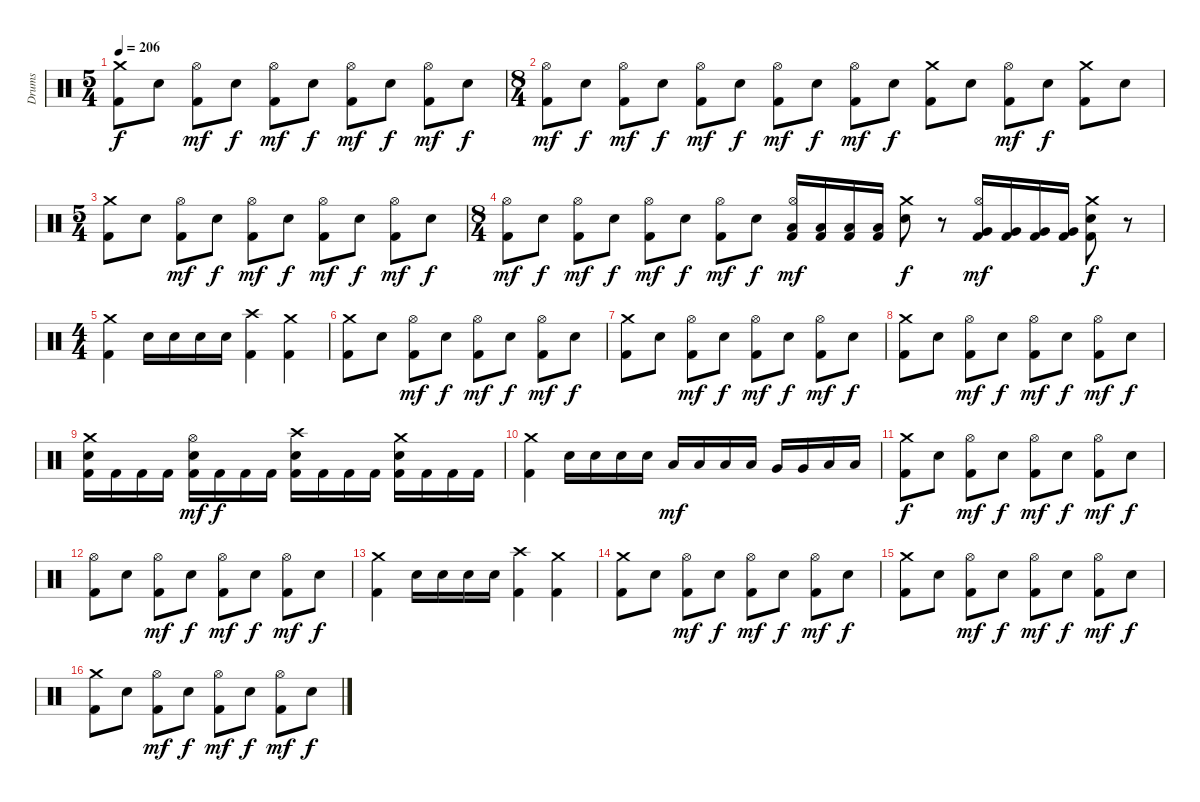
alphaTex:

\track ("Drums" "Drums") {instrument percussion}
\staff {score}
\articulation defaults
\ts (5 4)
\tempo 206
\clef neutral
\ks c
("Crash medium (hit)" "Kick (hit) 2").8{dy f} "Snare (hit) 2".8 ("Hi-Hat (open)" "Kick (hit) 2").8{dy mf} "Snare (hit) 2".8{dy f} ("Hi-Hat (open)" "Kick (hit) 2").8{dy mf} "Snare (hit) 2".8{dy f} ("Hi-Hat (open)" "Kick (hit) 2").8{dy mf} "Snare (hit) 2".8{dy f} ("Hi-Hat (open)" "Kick (hit) 2").8{dy mf} "Snare (hit) 2".8{dy f} |
\ts (8 4)
("Hi-Hat (open)" "Kick (hit) 2").8{dy mf} "Snare (hit) 2".8{dy f} ("Hi-Hat (open)" "Kick (hit) 2").8{dy mf} "Snare (hit) 2".8{dy f} ("Hi-Hat (open)" "Kick (hit) 2").8{dy mf} "Snare (hit) 2".8{dy f} ("Hi-Hat (open)" "Kick (hit) 2").8{dy mf} "Snare (hit) 2".8{dy f} ("Hi-Hat (open)" "Kick (hit) 2").8{dy mf} "Snare (hit) 2".8{dy f} ("Crash medium (hit)" "Kick (hit) 2").8 "Snare (hit) 2".8 ("Hi-Hat (open)" "Kick (hit) 2").8{dy mf} "Snare (hit) 2".8{dy f} ("Crash medium (hit)" "Kick (hit) 2").8 "Snare (hit) 2".8 |
\ts (5 4)
("Crash medium (hit)" "Kick (hit) 2").8 "Snare (hit) 2".8 ("Hi-Hat (open)" "Kick (hit) 2").8{dy mf} "Snare (hit) 2".8{dy f} ("Hi-Hat (open)" "Kick (hit) 2").8{dy mf} "Snare (hit) 2".8{dy f} ("Hi-Hat (open)" "Kick (hit) 2").8{dy mf} "Snare (hit) 2".8{dy f} ("Hi-Hat (open)" "Kick (hit) 2").8{dy mf} "Snare (hit) 2".8{dy f} |
\ts (8 4)
("Hi-Hat (open)" "Kick (hit) 2").8{dy mf} "Snare (hit) 2".8{dy f} ("Hi-Hat (open)" "Kick (hit) 2").8{dy mf} "Snare (hit) 2".8{dy f} ("Hi-Hat (open)" "Kick (hit) 2").8{dy mf} "Snare (hit) 2".8{dy f} ("Hi-Hat (open)" "Kick (hit) 2").8{dy mf} "Snare (hit) 2".8{dy f} ("Hi-Hat (open)" "Low Tom (hit)" "Kick (hit) 2").16{dy mf} ("Low Tom (hit)" "Kick (hit) 2").16 ("Low Tom (hit)" "Kick (hit) 2").16 ("Low Tom (hit)" "Kick (hit) 2").16 ("Crash medium (hit)" "Snare (hit) 2").8{dy f} r.8 ("Hi-Hat (open)" "Very Low Tom (hit)" "Kick (hit) 2").16{dy mf} ("Very Low Tom (hit)" "Kick (hit) 2").16 ("Very Low Tom (hit)" "Kick (hit) 2").16 ("Very Low Tom (hit)" "Kick (hit) 2").16 ("Crash medium (hit)" "Snare (hit) 2" "Kick (hit) 2").8{dy f} r.8 |
\ts (4 4)
("Crash medium (hit)" "Kick (hit) 2").4 "Snare (hit) 2".16 "Snare (hit) 2".16 "Snare (hit) 2".16 "Snare (hit) 2".16 ("Crash high (hit)" "Kick (hit) 2").4 ("Crash medium (hit)" "Kick (hit) 2").4 |
("Crash medium (hit)" "Kick (hit) 2").8 "Snare (hit) 2".8 ("Hi-Hat (open)" "Kick (hit) 2").8{dy mf} "Snare (hit) 2".8{dy f} ("Hi-Hat (open)" "Kick (hit) 2").8{dy mf} "Snare (hit) 2".8{dy f} ("Hi-Hat (open)" "Kick (hit) 2").8{dy mf} "Snare (hit) 2".8{dy f} |
("Crash medium (hit)" "Kick (hit) 2").8 "Snare (hit) 2".8 ("Hi-Hat (open)" "Kick (hit) 2").8{dy mf} "Snare (hit) 2".8{dy f} ("Hi-Hat (open)" "Kick (hit) 2").8{dy mf} "Snare (hit) 2".8{dy f} ("Hi-Hat (open)" "Kick (hit) 2").8{dy mf} "Snare (hit) 2".8{dy f} |
("Crash medium (hit)" "Kick (hit) 2").8 "Snare (hit) 2".8 ("Hi-Hat (open)" "Kick (hit) 2").8{dy mf} "Snare (hit) 2".8{dy f} ("Hi-Hat (open)" "Kick (hit) 2").8{dy mf} "Snare (hit) 2".8{dy f} ("Hi-Hat (open)" "Kick (hit) 2").8{dy mf} "Snare (hit) 2".8{dy f} |
("Crash medium (hit)" "Snare (hit) 2" "Kick (hit) 2").16 "Kick (hit) 2".16 "Kick (hit) 2".16 "Kick (hit) 2".16 ("Hi-Hat (open)" "Snare (hit) 2" "Kick (hit) 2").16{dy mf} "Kick (hit) 2".16{dy f} "Kick (hit) 2".16 "Kick (hit) 2".16 ("Crash high (hit)" "Snare (hit) 2" "Kick (hit) 2").16 "Kick (hit) 2".16 "Kick (hit) 2".16 "Kick (hit) 2".16 ("Crash medium (hit)" "Snare (hit) 2" "Kick (hit) 2").16 "Kick (hit) 2".16 "Kick (hit) 2".16 "Kick (hit) 2".16 |
("Crash medium (hit)" "Kick (hit) 2").4 "Snare (hit) 2".16 "Snare (hit) 2".16 "Snare (hit) 2".16 "Snare (hit) 2".16 "Low Tom (hit)".16{dy mf} "Low Tom (hit)".16 "Low Tom (hit)".16 "Low Tom (hit)".16 "Very Low Tom (hit)".16 "Very Low Tom (hit)".16 "Low Floor Tom (hit)".16 "Low Floor Tom (hit)".16 |
("Crash medium (hit)" "Kick (hit) 2").8{dy f} "Snare (hit) 2".8 ("Hi-Hat (open)" "Kick (hit) 2").8{dy mf} "Snare (hit) 2".8{dy f} ("Hi-Hat (open)" "Kick (hit) 2").8{dy mf} "Snare (hit) 2".8{dy f} ("Hi-Hat (open)" "Kick (hit) 2").8{dy mf} "Snare (hit) 2".8{dy f} |
("Hi-Hat (open)" "Kick (hit) 2").8 "Snare (hit) 2".8 ("Hi-Hat (open)" "Kick (hit) 2").8{dy mf} "Snare (hit) 2".8{dy f} ("Hi-Hat (open)" "Kick (hit) 2").8{dy mf} "Snare (hit) 2".8{dy f} ("Hi-Hat (open)" "Kick (hit) 2").8{dy mf} "Snare (hit) 2".8{dy f} |
("Crash medium (hit)" "Kick (hit) 2").4 "Snare (hit) 2".16 "Snare (hit) 2".16 "Snare (hit) 2".16 "Snare (hit) 2".16 ("Crash high (hit)" "Kick (hit) 2").4 ("Crash medium (hit)" "Kick (hit) 2").4 |
("Crash medium (hit)" "Kick (hit) 2").8 "Snare (hit) 2".8 ("Hi-Hat (open)" "Kick (hit) 2").8{dy mf} "Snare (hit) 2".8{dy f} ("Hi-Hat (open)" "Kick (hit) 2").8{dy mf} "Snare (hit) 2".8{dy f} ("Hi-Hat (open)" "Kick (hit) 2").8{dy mf} "Snare (hit) 2".8{dy f} |
("Crash medium (hit)" "Kick (hit) 2").8 "Snare (hit) 2".8 ("Hi-Hat (open)" "Kick (hit) 2").8{dy mf} "Snare (hit) 2".8{dy f} ("Hi-Hat (open)" "Kick (hit) 2").8{dy mf} "Snare (hit) 2".8{dy f} ("Hi-Hat (open)" "Kick (hit) 2").8{dy mf} "Snare (hit) 2".8{dy f} |
("Crash medium (hit)" "Kick (hit) 2").8 "Snare (hit) 2".8 ("Hi-Hat (open)" "Kick (hit) 2").8{dy mf} "Snare (hit) 2".8{dy f} ("Hi-Hat (open)" "Kick (hit) 2").8{dy mf} "Snare (hit) 2".8{dy f} ("Hi-Hat (open)" "Kick (hit) 2").8{dy mf} "Snare (hit) 2".8{dy f}
